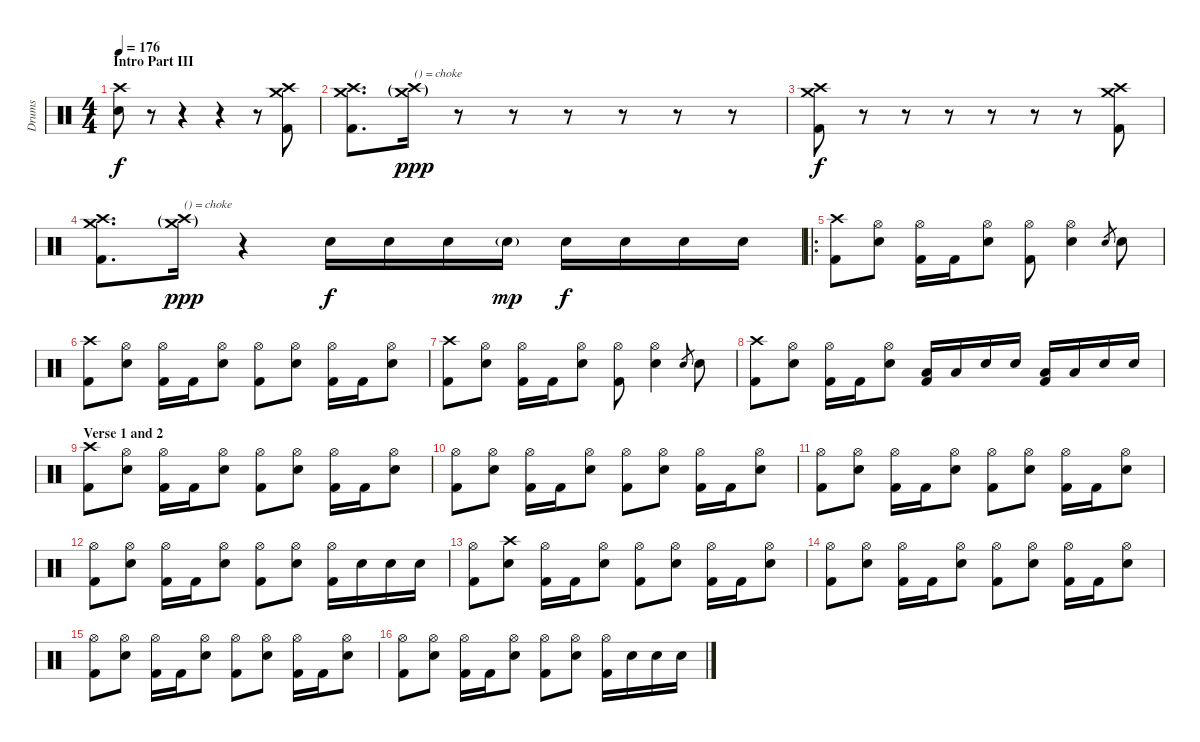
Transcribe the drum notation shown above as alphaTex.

\track ("Drums" "Drums") {instrument percussion}
\staff {score}
\articulation defaults
\ts (4 4)
\section ("" "Intro Part III")
\tempo 176
\clef neutral
\ks c
("Crash high (hit)" "Electric Snare (hit)").8{dy f} r.8 r.4 r.4 r.8 ("Crash high (hit)" "Crash medium (hit)" "Kick (hit) 2").8 |
("Crash high (hit)" "Crash medium (hit)" "Kick (hit) 2").8{d} ("Crash high (hit)"{g} "Crash medium (hit)"{g}).16{txt "() = choke" dy ppp} r.8 r.8 r.8 r.8 r.8 r.8 |
("Crash high (hit)" "Crash medium (hit)" "Kick (hit) 2").8{dy f} r.8 r.8 r.8 r.8 r.8 r.8 ("Crash high (hit)" "Crash medium (hit)" "Kick (hit) 2").8 |
("Crash high (hit)" "Crash medium (hit)" "Kick (hit) 2").8{d} ("Crash high (hit)"{g} "Crash medium (hit)"{g}).16{txt "() = choke" dy ppp} r.4 "Electric Snare (hit)".16{dy f} "Electric Snare (hit)".16 "Electric Snare (hit)".16 "Electric Snare (hit)"{g}.16{dy mp} "Electric Snare (hit)".16{dy f} "Electric Snare (hit)".16 "Electric Snare (hit)".16 "Electric Snare (hit)".16 |
\ro
("Crash high (hit)" "Kick (hit) 2").8 ("Hi-Hat (open)" "Electric Snare (hit)").8 ("Hi-Hat (open)" "Kick (hit) 2").16 "Kick (hit) 2".16 ("Hi-Hat (open)" "Electric Snare (hit)").8 ("Hi-Hat (open)" "Kick (hit) 2").8 ("Hi-Hat (open)" "Electric Snare (hit)").4 "Electric Snare (hit)".8{gr} "Electric Snare (hit)".8 |
("Crash high (hit)" "Kick (hit) 2").8 ("Hi-Hat (open)" "Electric Snare (hit)").8 ("Hi-Hat (open)" "Kick (hit) 2").16 "Kick (hit) 2".16 ("Hi-Hat (open)" "Electric Snare (hit)").8 ("Hi-Hat (open)" "Kick (hit) 2").8 ("Hi-Hat (open)" "Electric Snare (hit)").8 ("Hi-Hat (open)" "Kick (hit) 2").16 "Kick (hit) 2".16 ("Hi-Hat (open)" "Electric Snare (hit)").8 |
("Crash high (hit)" "Kick (hit) 2").8 ("Hi-Hat (open)" "Electric Snare (hit)").8 ("Hi-Hat (open)" "Kick (hit) 2").16 "Kick (hit) 2".16 ("Hi-Hat (open)" "Electric Snare (hit)").8 ("Hi-Hat (open)" "Kick (hit) 2").8 ("Hi-Hat (open)" "Electric Snare (hit)").4 "Electric Snare (hit)".8{gr} "Electric Snare (hit)".8 |
("Crash high (hit)" "Kick (hit) 2").8 ("Hi-Hat (open)" "Electric Snare (hit)").8 ("Hi-Hat (open)" "Kick (hit) 2").16 "Kick (hit) 2".16 ("Hi-Hat (open)" "Electric Snare (hit)").8 ("Low Tom (hit)" "Kick (hit) 2").16 "Low Tom (hit)".16 "Electric Snare (hit)".16 "Electric Snare (hit)".16 ("Low Tom (hit)" "Kick (hit) 2").16 "Low Tom (hit)".16 "Electric Snare (hit)".16 "Electric Snare (hit)".16 |
\section ("" "Verse 1 and 2")
("Crash high (hit)" "Kick (hit) 2").8 ("Hi-Hat (open)" "Electric Snare (hit)").8 ("Hi-Hat (open)" "Kick (hit) 2").16 "Kick (hit) 2".16 ("Hi-Hat (open)" "Electric Snare (hit)").8 ("Hi-Hat (open)" "Kick (hit) 2").8 ("Hi-Hat (open)" "Electric Snare (hit)").8 ("Hi-Hat (open)" "Kick (hit) 2").16 "Kick (hit) 2".16 ("Hi-Hat (open)" "Electric Snare (hit)").8 |
("Hi-Hat (open)" "Kick (hit) 2").8 ("Hi-Hat (open)" "Electric Snare (hit)").8 ("Hi-Hat (open)" "Kick (hit) 2").16 "Kick (hit) 2".16 ("Hi-Hat (open)" "Electric Snare (hit)").8 ("Hi-Hat (open)" "Kick (hit) 2").8 ("Hi-Hat (open)" "Electric Snare (hit)").8 ("Hi-Hat (open)" "Kick (hit) 2").16 "Kick (hit) 2".16 ("Hi-Hat (open)" "Electric Snare (hit)").8 |
("Hi-Hat (open)" "Kick (hit) 2").8 ("Hi-Hat (open)" "Electric Snare (hit)").8 ("Hi-Hat (open)" "Kick (hit) 2").16 "Kick (hit) 2".16 ("Hi-Hat (open)" "Electric Snare (hit)").8 ("Hi-Hat (open)" "Kick (hit) 2").8 ("Hi-Hat (open)" "Electric Snare (hit)").8 ("Hi-Hat (open)" "Kick (hit) 2").16 "Kick (hit) 2".16 ("Hi-Hat (open)" "Electric Snare (hit)").8 |
("Hi-Hat (open)" "Kick (hit) 2").8 ("Hi-Hat (open)" "Electric Snare (hit)").8 ("Hi-Hat (open)" "Kick (hit) 2").16 "Kick (hit) 2".16 ("Hi-Hat (open)" "Electric Snare (hit)").8 ("Hi-Hat (open)" "Kick (hit) 2").8 ("Hi-Hat (open)" "Electric Snare (hit)").8 ("Hi-Hat (open)" "Kick (hit) 2").16 "Electric Snare (hit)".16 "Electric Snare (hit)".16 "Electric Snare (hit)".16 |
("Hi-Hat (open)" "Kick (hit) 2").8 ("Crash high (hit)" "Electric Snare (hit)").8 ("Hi-Hat (open)" "Kick (hit) 2").16 "Kick (hit) 2".16 ("Hi-Hat (open)" "Electric Snare (hit)").8 ("Hi-Hat (open)" "Kick (hit) 2").8 ("Hi-Hat (open)" "Electric Snare (hit)").8 ("Hi-Hat (open)" "Kick (hit) 2").16 "Kick (hit) 2".16 ("Hi-Hat (open)" "Electric Snare (hit)").8 |
("Hi-Hat (open)" "Kick (hit) 2").8 ("Hi-Hat (open)" "Electric Snare (hit)").8 ("Hi-Hat (open)" "Kick (hit) 2").16 "Kick (hit) 2".16 ("Hi-Hat (open)" "Electric Snare (hit)").8 ("Hi-Hat (open)" "Kick (hit) 2").8 ("Hi-Hat (open)" "Electric Snare (hit)").8 ("Hi-Hat (open)" "Kick (hit) 2").16 "Kick (hit) 2".16 ("Hi-Hat (open)" "Electric Snare (hit)").8 |
("Hi-Hat (open)" "Kick (hit) 2").8 ("Hi-Hat (open)" "Electric Snare (hit)").8 ("Hi-Hat (open)" "Kick (hit) 2").16 "Kick (hit) 2".16 ("Hi-Hat (open)" "Electric Snare (hit)").8 ("Hi-Hat (open)" "Kick (hit) 2").8 ("Hi-Hat (open)" "Electric Snare (hit)").8 ("Hi-Hat (open)" "Kick (hit) 2").16 "Kick (hit) 2".16 ("Hi-Hat (open)" "Electric Snare (hit)").8 |
("Hi-Hat (open)" "Kick (hit) 2").8 ("Hi-Hat (open)" "Electric Snare (hit)").8 ("Hi-Hat (open)" "Kick (hit) 2").16 "Kick (hit) 2".16 ("Hi-Hat (open)" "Electric Snare (hit)").8 ("Hi-Hat (open)" "Kick (hit) 2").8 ("Hi-Hat (open)" "Electric Snare (hit)").8 ("Hi-Hat (open)" "Kick (hit) 2").16 "Electric Snare (hit)".16 "Electric Snare (hit)".16 "Electric Snare (hit)".16
